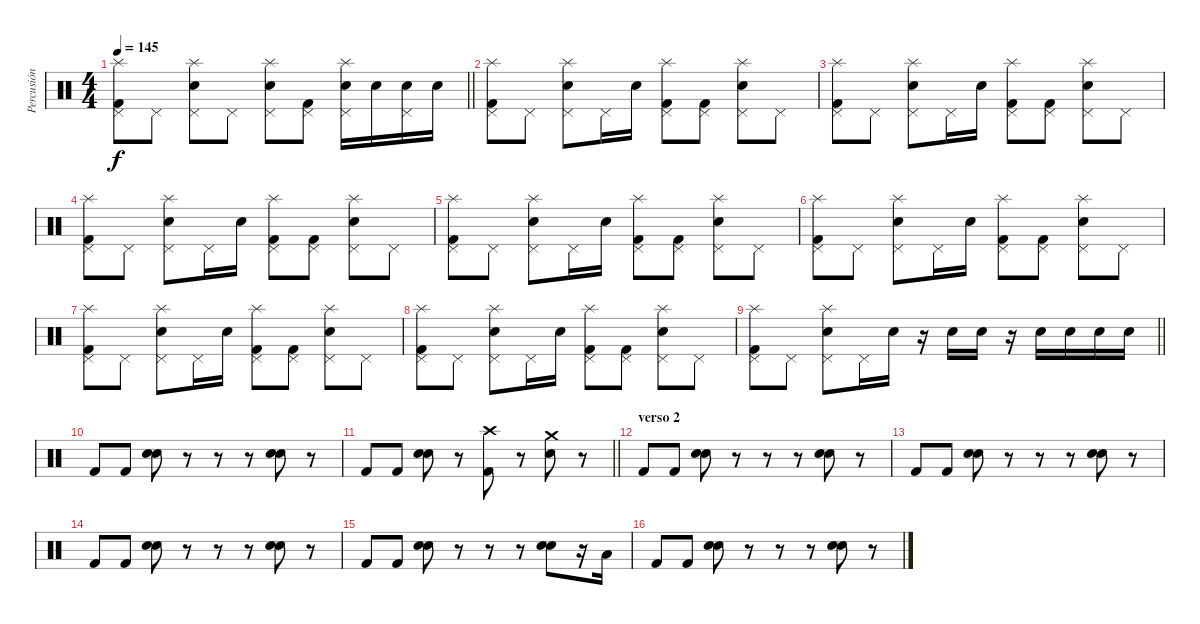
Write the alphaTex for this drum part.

\track ("Percusión" "Percusión") {instrument percussion}
\staff {score}
\articulation defaults
\ts (4 4)
\tempo 145
\clef neutral
\barLineRight lightlight
\ks c
("Splash (hit)" "Pedal Hi-Hat (hit)" "Kick (hit) 2").8{dy f} "Pedal Hi-Hat (hit)".8 ("Splash (hit)" "Pedal Hi-Hat (hit)" "Electric Snare (hit)").8 "Pedal Hi-Hat (hit)".8 ("Splash (hit)" "Pedal Hi-Hat (hit)" "Electric Snare (hit)").8 ("Pedal Hi-Hat (hit)" "Kick (hit) 2").8 ("Splash (hit)" "Pedal Hi-Hat (hit)" "Electric Snare (hit)").16 "Electric Snare (hit)".16 ("Pedal Hi-Hat (hit)" "Electric Snare (hit)").16 "Electric Snare (hit)".16 |
("Pedal Hi-Hat (hit)" "Splash (hit)" "Kick (hit) 2").8 "Pedal Hi-Hat (hit)".8 ("Pedal Hi-Hat (hit)" "Splash (hit)" "Electric Snare (hit)").8 "Pedal Hi-Hat (hit)".16 "Electric Snare (hit)".16 ("Pedal Hi-Hat (hit)" "Splash (hit)" "Kick (hit) 2").8 ("Pedal Hi-Hat (hit)" "Kick (hit) 2").8 ("Pedal Hi-Hat (hit)" "Splash (hit)" "Electric Snare (hit)").8 "Pedal Hi-Hat (hit)".8 |
("Pedal Hi-Hat (hit)" "Splash (hit)" "Kick (hit) 2").8 "Pedal Hi-Hat (hit)".8 ("Pedal Hi-Hat (hit)" "Splash (hit)" "Electric Snare (hit)").8 "Pedal Hi-Hat (hit)".16 "Electric Snare (hit)".16 ("Pedal Hi-Hat (hit)" "Splash (hit)" "Kick (hit) 2").8 ("Pedal Hi-Hat (hit)" "Kick (hit) 2").8 ("Pedal Hi-Hat (hit)" "Splash (hit)" "Electric Snare (hit)").8 "Pedal Hi-Hat (hit)".8 |
("Pedal Hi-Hat (hit)" "Splash (hit)" "Kick (hit) 2").8 "Pedal Hi-Hat (hit)".8 ("Pedal Hi-Hat (hit)" "Splash (hit)" "Electric Snare (hit)").8 "Pedal Hi-Hat (hit)".16 "Electric Snare (hit)".16 ("Pedal Hi-Hat (hit)" "Splash (hit)" "Kick (hit) 2").8 ("Pedal Hi-Hat (hit)" "Kick (hit) 2").8 ("Pedal Hi-Hat (hit)" "Splash (hit)" "Electric Snare (hit)").8 "Pedal Hi-Hat (hit)".8 |
("Pedal Hi-Hat (hit)" "Splash (hit)" "Kick (hit) 2").8 "Pedal Hi-Hat (hit)".8 ("Pedal Hi-Hat (hit)" "Splash (hit)" "Electric Snare (hit)").8 "Pedal Hi-Hat (hit)".16 "Electric Snare (hit)".16 ("Pedal Hi-Hat (hit)" "Splash (hit)" "Kick (hit) 2").8 ("Pedal Hi-Hat (hit)" "Kick (hit) 2").8 ("Pedal Hi-Hat (hit)" "Splash (hit)" "Electric Snare (hit)").8 "Pedal Hi-Hat (hit)".8 |
("Pedal Hi-Hat (hit)" "Splash (hit)" "Kick (hit) 2").8 "Pedal Hi-Hat (hit)".8 ("Pedal Hi-Hat (hit)" "Splash (hit)" "Electric Snare (hit)").8 "Pedal Hi-Hat (hit)".16 "Electric Snare (hit)".16 ("Pedal Hi-Hat (hit)" "Splash (hit)" "Kick (hit) 2").8 ("Pedal Hi-Hat (hit)" "Kick (hit) 2").8 ("Pedal Hi-Hat (hit)" "Splash (hit)" "Electric Snare (hit)").8 "Pedal Hi-Hat (hit)".8 |
("Pedal Hi-Hat (hit)" "Splash (hit)" "Kick (hit) 2").8 "Pedal Hi-Hat (hit)".8 ("Pedal Hi-Hat (hit)" "Splash (hit)" "Electric Snare (hit)").8 "Pedal Hi-Hat (hit)".16 "Electric Snare (hit)".16 ("Pedal Hi-Hat (hit)" "Splash (hit)" "Kick (hit) 2").8 ("Pedal Hi-Hat (hit)" "Kick (hit) 2").8 ("Pedal Hi-Hat (hit)" "Splash (hit)" "Electric Snare (hit)").8 "Pedal Hi-Hat (hit)".8 |
("Pedal Hi-Hat (hit)" "Splash (hit)" "Kick (hit) 2").8 "Pedal Hi-Hat (hit)".8 ("Pedal Hi-Hat (hit)" "Splash (hit)" "Electric Snare (hit)").8 "Pedal Hi-Hat (hit)".16 "Electric Snare (hit)".16 ("Pedal Hi-Hat (hit)" "Splash (hit)" "Kick (hit) 2").8 ("Pedal Hi-Hat (hit)" "Kick (hit) 2").8 ("Pedal Hi-Hat (hit)" "Splash (hit)" "Electric Snare (hit)").8 "Pedal Hi-Hat (hit)".8 |
\barLineRight lightlight
("Pedal Hi-Hat (hit)" "Splash (hit)" "Kick (hit) 2").8 "Pedal Hi-Hat (hit)".8 ("Pedal Hi-Hat (hit)" "Splash (hit)" "Electric Snare (hit)").8 "Pedal Hi-Hat (hit)".16 "Electric Snare (hit)".16 r.16 "Electric Snare (hit)".16 "Electric Snare (hit)".16 r.16 "Electric Snare (hit)".16 "Electric Snare (hit)".16 "Electric Snare (hit)".16 "Electric Snare (hit)".16 |
"Kick (hit) 2".8 "Kick (hit) 2".8 ("Electric Snare (hit)" "Electric Snare (hit)").8{bd 60} r.8 r.8 r.8 ("Electric Snare (hit)" "Electric Snare (hit)").8{bd 60} r.8 |
\barLineRight lightlight "Kick (hit) 2".8 "Kick (hit) 2".8
("Electric Snare (hit)" "Electric Snare (hit)").8{bd 60} r.8 ("Crash high (hit)" "Kick (hit) 2").8 r.8 ("Crash medium (hit)" "Electric Snare (hit)").8 r.8 |
\section ("" "verso 2")
"Kick (hit) 2".8 "Kick (hit) 2".8 ("Electric Snare (hit)" "Electric Snare (hit)").8{bd 60} r.8 r.8 r.8 ("Electric Snare (hit)" "Electric Snare (hit)").8{bd 60} r.8 |
"Kick (hit) 2".8 "Kick (hit) 2".8 ("Electric Snare (hit)" "Electric Snare (hit)").8{bd 60} r.8 r.8 r.8 ("Electric Snare (hit)" "Electric Snare (hit)").8{bd 60} r.8 |
"Kick (hit) 2".8 "Kick (hit) 2".8 ("Electric Snare (hit)" "Electric Snare (hit)").8{bd 60} r.8 r.8 r.8 ("Electric Snare (hit)" "Electric Snare (hit)").8{bd 60} r.8 |
"Kick (hit) 2".8 "Kick (hit) 2".8 ("Electric Snare (hit)" "Electric Snare (hit)").8{bd 60} r.8 r.8 r.8 ("Electric Snare (hit)" "Electric Snare (hit)").8{bd 60} r.16 "Low Tom (hit)".16 |
"Kick (hit) 2".8 "Kick (hit) 2".8 ("Electric Snare (hit)" "Electric Snare (hit)").8{bd 60} r.8 r.8 r.8 ("Electric Snare (hit)" "Electric Snare (hit)").8{bd 60} r.8
